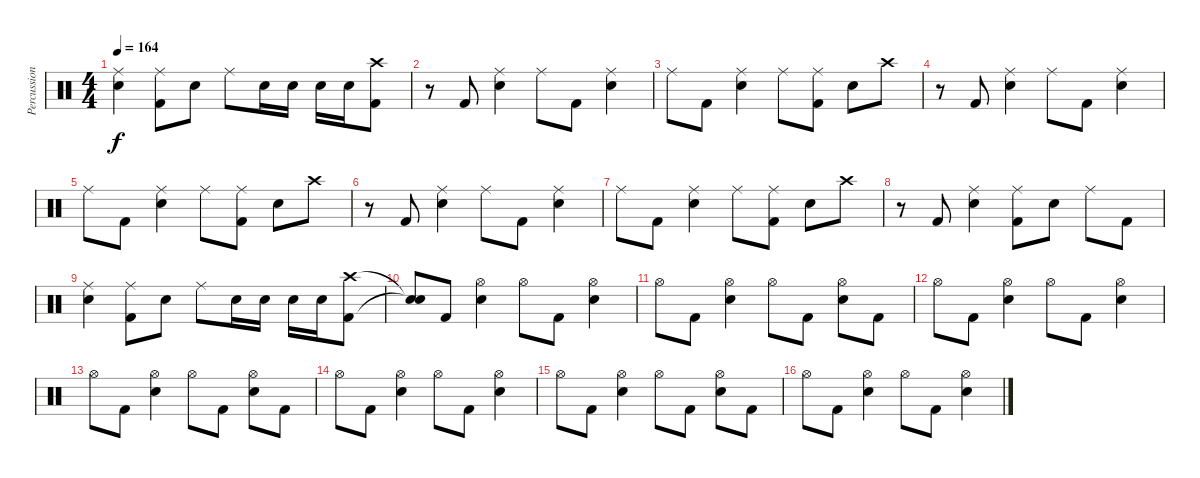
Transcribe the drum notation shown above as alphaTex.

\track ("Percussion" "Percussion") {instrument percussion}
\staff {score}
\articulation defaults
\ts (4 4)
\tempo 164
\clef neutral
\ks c
("Ride (middle)" "Snare (hit) 2").4{dy f} ("Ride (middle)" "Kick (hit) 2").8 "Snare (hit) 2".8 "Ride (middle)".8 "Snare (hit) 2".16 "Snare (hit) 2".16 "Snare (hit) 2".16 "Snare (hit) 2".16 ("Crash high (hit)" "Kick (hit) 2").8 |
r.8 "Kick (hit) 2".8 ("Ride (middle)" "Snare (hit) 2").4 "Ride (middle)".8 "Kick (hit) 2".8 ("Ride (middle)" "Snare (hit) 2").4 |
"Ride (middle)".8 "Kick (hit) 2".8 ("Ride (middle)" "Snare (hit) 2").4 "Ride (middle)".8 ("Ride (middle)" "Kick (hit) 2").8 "Snare (hit) 2".8 "Crash high (hit)".8 |
r.8 "Kick (hit) 2".8 ("Ride (middle)" "Snare (hit) 2").4 "Ride (middle)".8 "Kick (hit) 2".8 ("Ride (middle)" "Snare (hit) 2").4 |
"Ride (middle)".8 "Kick (hit) 2".8 ("Ride (middle)" "Snare (hit) 2").4 "Ride (middle)".8 ("Ride (middle)" "Kick (hit) 2").8 "Snare (hit) 2".8 "Crash high (hit)".8 |
r.8 "Kick (hit) 2".8 ("Ride (middle)" "Snare (hit) 2").4 "Ride (middle)".8 "Kick (hit) 2".8 ("Ride (middle)" "Snare (hit) 2").4 |
"Ride (middle)".8 "Kick (hit) 2".8 ("Ride (middle)" "Snare (hit) 2").4 "Ride (middle)".8 ("Ride (middle)" "Kick (hit) 2").8 "Snare (hit) 2".8 "Crash high (hit)".8 |
r.8 "Kick (hit) 2".8 ("Ride (middle)" "Snare (hit) 2").4 ("Ride (middle)" "Kick (hit) 2").8 "Snare (hit) 2".8 "Ride (middle)".8 "Kick (hit) 2".8 |
("Ride (middle)" "Snare (hit) 2").4 ("Ride (middle)" "Kick (hit) 2").8 "Snare (hit) 2".8 "Ride (middle)".8 "Snare (hit) 2".16 "Snare (hit) 2".16 "Snare (hit) 2".16 "Snare (hit) 2".16 ("Crash high (hit)" "Kick (hit) 2").8 |
("Snare (hit)"{t} "Snare (hit)"{t}).8 "Kick (hit) 2".8 ("Hi-Hat (open)" "Snare (hit) 2").4 "Hi-Hat (open)".8 "Kick (hit) 2".8 ("Hi-Hat (open)" "Snare (hit) 2").4 |
"Hi-Hat (open)".8 "Kick (hit) 2".8 ("Hi-Hat (open)" "Snare (hit) 2").4 "Hi-Hat (open)".8 "Kick (hit) 2".8 ("Hi-Hat (open)" "Snare (hit) 2").8 "Kick (hit) 2".8 |
"Hi-Hat (open)".8 "Kick (hit) 2".8 ("Hi-Hat (open)" "Snare (hit) 2").4 "Hi-Hat (open)".8 "Kick (hit) 2".8 ("Hi-Hat (open)" "Snare (hit) 2").4 |
"Hi-Hat (open)".8 "Kick (hit) 2".8 ("Hi-Hat (open)" "Snare (hit) 2").4 "Hi-Hat (open)".8 "Kick (hit) 2".8 ("Hi-Hat (open)" "Snare (hit) 2").8 "Kick (hit) 2".8 |
"Hi-Hat (open)".8 "Kick (hit) 2".8 ("Hi-Hat (open)" "Snare (hit) 2").4 "Hi-Hat (open)".8 "Kick (hit) 2".8 ("Hi-Hat (open)" "Snare (hit) 2").4 |
"Hi-Hat (open)".8 "Kick (hit) 2".8 ("Hi-Hat (open)" "Snare (hit) 2").4 "Hi-Hat (open)".8 "Kick (hit) 2".8 ("Hi-Hat (open)" "Snare (hit) 2").8 "Kick (hit) 2".8 |
"Hi-Hat (open)".8 "Kick (hit) 2".8 ("Hi-Hat (open)" "Snare (hit) 2").4 "Hi-Hat (open)".8 "Kick (hit) 2".8 ("Hi-Hat (open)" "Snare (hit) 2").4
